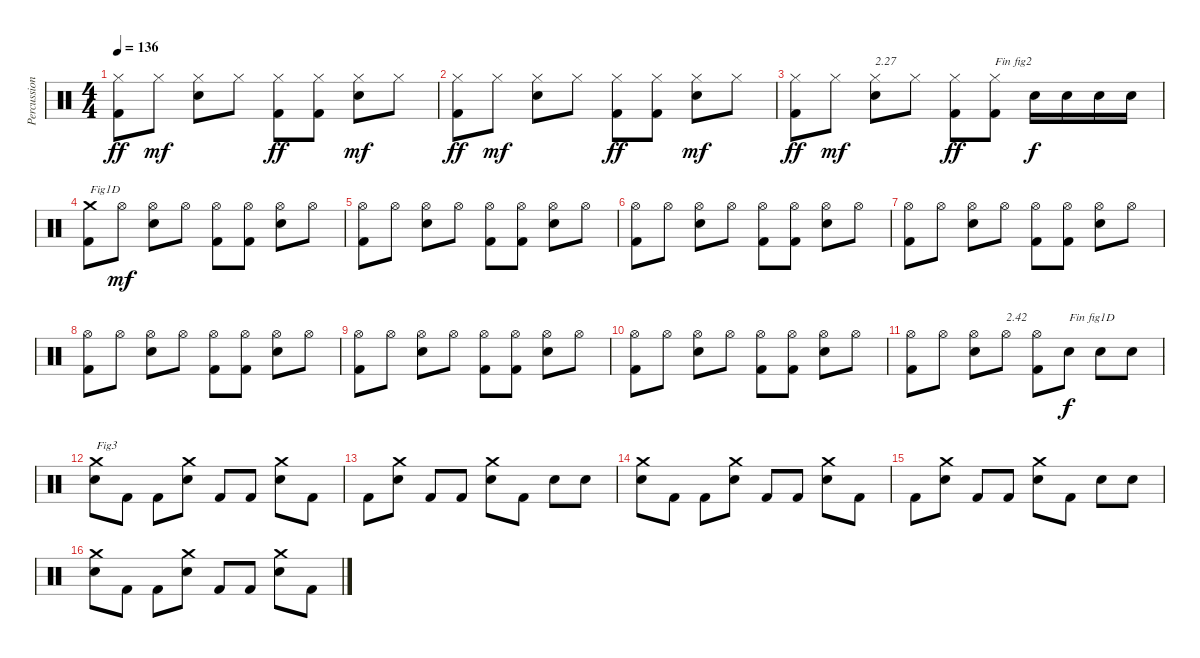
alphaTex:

\track ("Percussions" "Percussion") {instrument percussion}
\staff {score}
\articulation defaults
\ts (4 4)
\tempo 136
\clef neutral
\ks c
("Kick (hit) 2" "Hi-Hat (closed)").8{dy ff} "Hi-Hat (closed)".8{dy mf} ("Electric Snare (hit)" "Hi-Hat (closed)").8 "Hi-Hat (closed)".8 ("Kick (hit) 2" "Hi-Hat (closed)").8{dy ff} ("Kick (hit) 2" "Hi-Hat (closed)").8 ("Electric Snare (hit)" "Hi-Hat (closed)").8{dy mf} "Hi-Hat (closed)".8 |
("Kick (hit) 2" "Hi-Hat (closed)").8{dy ff} "Hi-Hat (closed)".8{dy mf} ("Electric Snare (hit)" "Hi-Hat (closed)").8 "Hi-Hat (closed)".8 ("Kick (hit) 2" "Hi-Hat (closed)").8{dy ff} ("Kick (hit) 2" "Hi-Hat (closed)").8 ("Electric Snare (hit)" "Hi-Hat (closed)").8{dy mf} "Hi-Hat (closed)".8 |
("Kick (hit) 2" "Hi-Hat (closed)").8{dy ff} "Hi-Hat (closed)".8{dy mf} ("Electric Snare (hit)" "Hi-Hat (closed)").8{txt "2.27"} "Hi-Hat (closed)".8 ("Kick (hit) 2" "Hi-Hat (closed)").8{dy ff} ("Kick (hit) 2" "Hi-Hat (closed)").8{txt "Fin fig2"} "Electric Snare (hit)".16{dy f} "Electric Snare (hit)".16 "Electric Snare (hit)".16 "Electric Snare (hit)".16 |
("Kick (hit) 2" "Crash medium (hit)").8{txt "Fig1D"} "Hi-Hat (open)".8{dy mf} ("Electric Snare (hit)" "Hi-Hat (open)").8 "Hi-Hat (open)".8 ("Kick (hit) 2" "Hi-Hat (open)").8 ("Kick (hit) 2" "Hi-Hat (open)").8 ("Electric Snare (hit)" "Hi-Hat (open)").8 "Hi-Hat (open)".8 |
("Kick (hit) 2" "Hi-Hat (open)").8 "Hi-Hat (open)".8 ("Electric Snare (hit)" "Hi-Hat (open)").8 "Hi-Hat (open)".8 ("Kick (hit) 2" "Hi-Hat (open)").8 ("Kick (hit) 2" "Hi-Hat (open)").8 ("Electric Snare (hit)" "Hi-Hat (open)").8 "Hi-Hat (open)".8 |
("Kick (hit) 2" "Hi-Hat (open)").8 "Hi-Hat (open)".8 ("Electric Snare (hit)" "Hi-Hat (open)").8 "Hi-Hat (open)".8 ("Kick (hit) 2" "Hi-Hat (open)").8 ("Kick (hit) 2" "Hi-Hat (open)").8 ("Electric Snare (hit)" "Hi-Hat (open)").8 "Hi-Hat (open)".8 |
("Kick (hit) 2" "Hi-Hat (open)").8 "Hi-Hat (open)".8 ("Electric Snare (hit)" "Hi-Hat (open)").8 "Hi-Hat (open)".8 ("Kick (hit) 2" "Hi-Hat (open)").8 ("Kick (hit) 2" "Hi-Hat (open)").8 ("Electric Snare (hit)" "Hi-Hat (open)").8 "Hi-Hat (open)".8 |
("Kick (hit) 2" "Hi-Hat (open)").8 "Hi-Hat (open)".8 ("Electric Snare (hit)" "Hi-Hat (open)").8 "Hi-Hat (open)".8 ("Kick (hit) 2" "Hi-Hat (open)").8 ("Kick (hit) 2" "Hi-Hat (open)").8 ("Electric Snare (hit)" "Hi-Hat (open)").8 "Hi-Hat (open)".8 |
("Kick (hit) 2" "Hi-Hat (open)").8 "Hi-Hat (open)".8 ("Electric Snare (hit)" "Hi-Hat (open)").8 "Hi-Hat (open)".8 ("Kick (hit) 2" "Hi-Hat (open)").8 ("Kick (hit) 2" "Hi-Hat (open)").8 ("Electric Snare (hit)" "Hi-Hat (open)").8 "Hi-Hat (open)".8 |
("Kick (hit) 2" "Hi-Hat (open)").8 "Hi-Hat (open)".8 ("Electric Snare (hit)" "Hi-Hat (open)").8 "Hi-Hat (open)".8 ("Kick (hit) 2" "Hi-Hat (open)").8 ("Kick (hit) 2" "Hi-Hat (open)").8 ("Electric Snare (hit)" "Hi-Hat (open)").8 "Hi-Hat (open)".8 |
("Kick (hit) 2" "Hi-Hat (open)").8 "Hi-Hat (open)".8 ("Electric Snare (hit)" "Hi-Hat (open)").8 "Hi-Hat (open)".8{txt "2.42"} ("Kick (hit) 2" "Hi-Hat (open)").8 "Electric Snare (hit)".8{txt "Fin fig1D" dy f} "Electric Snare (hit)".8 "Electric Snare (hit)".8 |
("Electric Snare (hit)" "Crash medium (hit)").8{txt "Fig3"} "Kick (hit) 2".8 "Kick (hit) 2".8 ("Electric Snare (hit)" "Crash medium (hit)").8 "Kick (hit) 2".8 "Kick (hit) 2".8 ("Electric Snare (hit)" "Crash medium (hit)").8 "Kick (hit) 2".8 |
"Kick (hit) 2".8 ("Electric Snare (hit)" "Crash medium (hit)").8 "Kick (hit) 2".8 "Kick (hit) 2".8 ("Electric Snare (hit)" "Crash medium (hit)").8 "Kick (hit) 2".8 "Electric Snare (hit)".8 "Electric Snare (hit)".8 |
("Electric Snare (hit)" "Crash medium (hit)").8 "Kick (hit) 2".8 "Kick (hit) 2".8 ("Electric Snare (hit)" "Crash medium (hit)").8 "Kick (hit) 2".8 "Kick (hit) 2".8 ("Electric Snare (hit)" "Crash medium (hit)").8 "Kick (hit) 2".8 |
"Kick (hit) 2".8 ("Electric Snare (hit)" "Crash medium (hit)").8 "Kick (hit) 2".8 "Kick (hit) 2".8 ("Electric Snare (hit)" "Crash medium (hit)").8 "Kick (hit) 2".8 "Electric Snare (hit)".8 "Electric Snare (hit)".8 |
("Electric Snare (hit)" "Crash medium (hit)").8 "Kick (hit) 2".8 "Kick (hit) 2".8 ("Electric Snare (hit)" "Crash medium (hit)").8 "Kick (hit) 2".8 "Kick (hit) 2".8 ("Electric Snare (hit)" "Crash medium (hit)").8 "Kick (hit) 2".8
